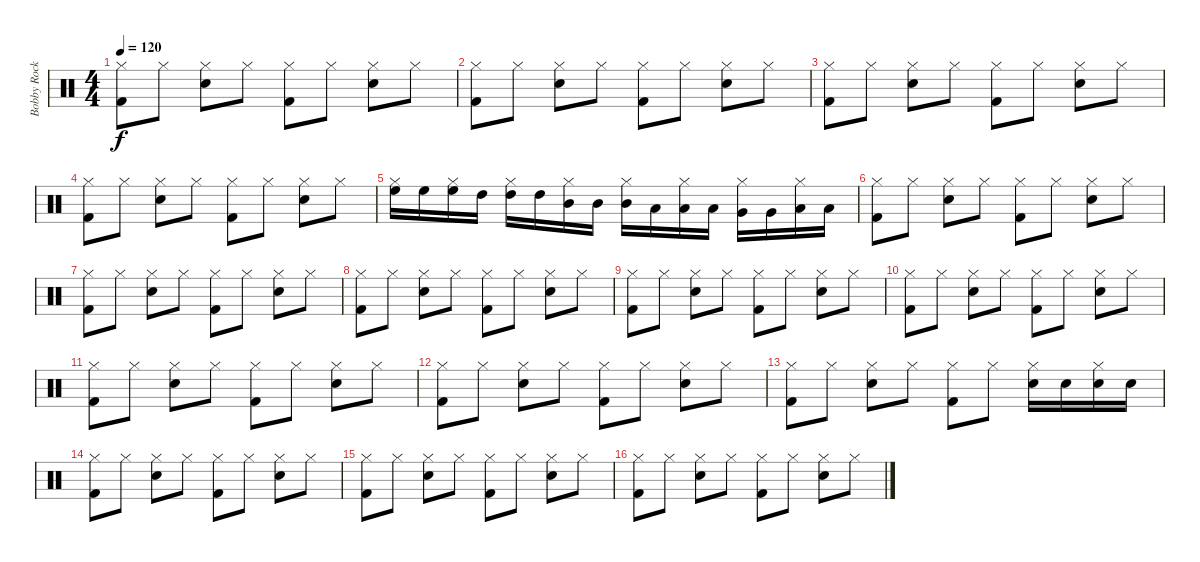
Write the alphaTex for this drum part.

\track ("Bobby Rock" "Bobby Rock") {instrument percussion}
\staff {score}
\articulation defaults
\ts (4 4)
\tempo 120
\clef neutral
\ks c
("Kick (hit) 2" "Hi-Hat (closed)").8{dy f} "Hi-Hat (closed)".8 ("Snare (hit) 2" "Hi-Hat (closed)").8 "Hi-Hat (closed)".8 ("Kick (hit) 2" "Hi-Hat (closed)").8 "Hi-Hat (closed)".8 ("Snare (hit) 2" "Hi-Hat (closed)").8 "Hi-Hat (closed)".8 |
("Kick (hit) 2" "Hi-Hat (closed)").8 "Hi-Hat (closed)".8 ("Snare (hit) 2" "Hi-Hat (closed)").8 "Hi-Hat (closed)".8 ("Kick (hit) 2" "Hi-Hat (closed)").8 "Hi-Hat (closed)".8 ("Snare (hit) 2" "Hi-Hat (closed)").8 "Hi-Hat (closed)".8 |
("Kick (hit) 2" "Hi-Hat (closed)").8 "Hi-Hat (closed)".8 ("Snare (hit) 2" "Hi-Hat (closed)").8 "Hi-Hat (closed)".8 ("Kick (hit) 2" "Hi-Hat (closed)").8 "Hi-Hat (closed)".8 ("Snare (hit) 2" "Hi-Hat (closed)").8 "Hi-Hat (closed)".8 |
("Kick (hit) 2" "Hi-Hat (closed)").8 "Hi-Hat (closed)".8 ("Snare (hit) 2" "Hi-Hat (closed)").8 "Hi-Hat (closed)".8 ("Kick (hit) 2" "Hi-Hat (closed)").8 "Hi-Hat (closed)".8 ("Snare (hit) 2" "Hi-Hat (closed)").8 "Hi-Hat (closed)".8 |
("Hi-Hat (closed)" "High Floor Tom (hit)").16 "High Floor Tom (hit)".16 ("Hi-Hat (closed)" "High Floor Tom (hit)").16 "High Tom (hit)".16 ("Hi-Hat (closed)" "High Tom (hit)").16 "High Tom (hit)".16 ("Hi-Hat (closed)" "Mid Tom (hit)").16 "Mid Tom (hit)".16 ("Hi-Hat (closed)" "Mid Tom (hit)").16 "Low Tom (hit)".16 ("Hi-Hat (closed)" "Low Tom (hit)").16 "Low Tom (hit)".16 ("Hi-Hat (closed)" "Very Low Tom (hit)").16 "Very Low Tom (hit)".16 ("Hi-Hat (closed)" "Low Floor Tom (hit)").16 "Low Floor Tom (hit)".16 |
("Kick (hit) 2" "Hi-Hat (closed)").8 "Hi-Hat (closed)".8 ("Snare (hit) 2" "Hi-Hat (closed)").8 "Hi-Hat (closed)".8 ("Kick (hit) 2" "Hi-Hat (closed)").8 "Hi-Hat (closed)".8 ("Snare (hit) 2" "Hi-Hat (closed)").8 "Hi-Hat (closed)".8 |
("Kick (hit) 2" "Hi-Hat (closed)").8 "Hi-Hat (closed)".8 ("Snare (hit) 2" "Hi-Hat (closed)").8 "Hi-Hat (closed)".8 ("Kick (hit) 2" "Hi-Hat (closed)").8 "Hi-Hat (closed)".8 ("Snare (hit) 2" "Hi-Hat (closed)").8 "Hi-Hat (closed)".8 |
("Kick (hit) 2" "Hi-Hat (closed)").8 "Hi-Hat (closed)".8 ("Snare (hit) 2" "Hi-Hat (closed)").8 "Hi-Hat (closed)".8 ("Kick (hit) 2" "Hi-Hat (closed)").8 "Hi-Hat (closed)".8 ("Snare (hit) 2" "Hi-Hat (closed)").8 "Hi-Hat (closed)".8 |
("Kick (hit) 2" "Hi-Hat (closed)").8 "Hi-Hat (closed)".8 ("Snare (hit) 2" "Hi-Hat (closed)").8 "Hi-Hat (closed)".8 ("Kick (hit) 2" "Hi-Hat (closed)").8 "Hi-Hat (closed)".8 ("Snare (hit) 2" "Hi-Hat (closed)").8 "Hi-Hat (closed)".8 |
("Kick (hit) 2" "Hi-Hat (closed)").8 "Hi-Hat (closed)".8 ("Snare (hit) 2" "Hi-Hat (closed)").8 "Hi-Hat (closed)".8 ("Kick (hit) 2" "Hi-Hat (closed)").8 "Hi-Hat (closed)".8 ("Snare (hit) 2" "Hi-Hat (closed)").8 "Hi-Hat (closed)".8 |
("Kick (hit) 2" "Hi-Hat (closed)").8 "Hi-Hat (closed)".8 ("Snare (hit) 2" "Hi-Hat (closed)").8 "Hi-Hat (closed)".8 ("Kick (hit) 2" "Hi-Hat (closed)").8 "Hi-Hat (closed)".8 ("Snare (hit) 2" "Hi-Hat (closed)").8 "Hi-Hat (closed)".8 |
("Kick (hit) 2" "Hi-Hat (closed)").8 "Hi-Hat (closed)".8 ("Snare (hit) 2" "Hi-Hat (closed)").8 "Hi-Hat (closed)".8 ("Kick (hit) 2" "Hi-Hat (closed)").8 "Hi-Hat (closed)".8 ("Snare (hit) 2" "Hi-Hat (closed)").8 "Hi-Hat (closed)".8 |
("Kick (hit) 2" "Hi-Hat (closed)").8 "Hi-Hat (closed)".8 ("Snare (hit) 2" "Hi-Hat (closed)").8 "Hi-Hat (closed)".8 ("Kick (hit) 2" "Hi-Hat (closed)").8 "Hi-Hat (closed)".8 ("Snare (hit) 2" "Hi-Hat (closed)").16 "Snare (hit) 2".16 ("Snare (hit) 2" "Hi-Hat (closed)").16 "Snare (hit) 2".16 |
("Kick (hit) 2" "Hi-Hat (closed)").8 "Hi-Hat (closed)".8 ("Snare (hit) 2" "Hi-Hat (closed)").8 "Hi-Hat (closed)".8 ("Kick (hit) 2" "Hi-Hat (closed)").8 "Hi-Hat (closed)".8 ("Snare (hit) 2" "Hi-Hat (closed)").8 "Hi-Hat (closed)".8 |
("Kick (hit) 2" "Hi-Hat (closed)").8 "Hi-Hat (closed)".8 ("Snare (hit) 2" "Hi-Hat (closed)").8 "Hi-Hat (closed)".8 ("Kick (hit) 2" "Hi-Hat (closed)").8 "Hi-Hat (closed)".8 ("Snare (hit) 2" "Hi-Hat (closed)").8 "Hi-Hat (closed)".8 |
("Kick (hit) 2" "Hi-Hat (closed)").8 "Hi-Hat (closed)".8 ("Snare (hit) 2" "Hi-Hat (closed)").8 "Hi-Hat (closed)".8 ("Kick (hit) 2" "Hi-Hat (closed)").8 "Hi-Hat (closed)".8 ("Snare (hit) 2" "Hi-Hat (closed)").8 "Hi-Hat (closed)".8
